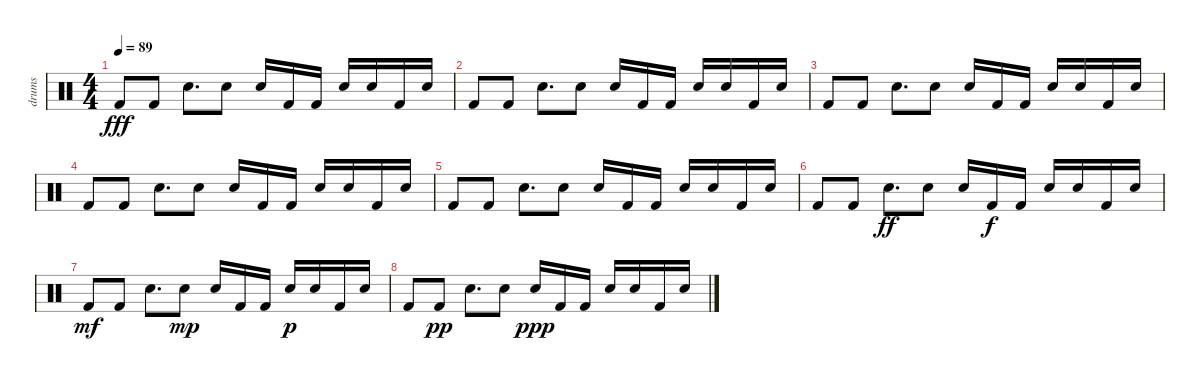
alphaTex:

\track ("drums" "drums") {instrument percussion}
\staff {score}
\articulation defaults
\ts (4 4)
\tempo 89
\clef neutral
\ks c "Kick (hit) 2".8{dy fff} "Kick (hit) 2".8 "Electric Snare (hit)".8{d} "Electric Snare (hit)".8 "Electric Snare (hit)".16 "Kick (hit) 2".16 "Kick (hit) 2".16 "Electric Snare (hit)".16 "Electric Snare (hit)".16 "Kick (hit) 2".16 "Electric Snare (hit)".16
|
"Kick (hit) 2".8 "Kick (hit) 2".8 "Electric Snare (hit)".8{d} "Electric Snare (hit)".8 "Electric Snare (hit)".16 "Kick (hit) 2".16 "Kick (hit) 2".16 "Electric Snare (hit)".16 "Electric Snare (hit)".16 "Kick (hit) 2".16 "Electric Snare (hit)".16 |
"Kick (hit) 2".8 "Kick (hit) 2".8 "Electric Snare (hit)".8{d} "Electric Snare (hit)".8 "Electric Snare (hit)".16 "Kick (hit) 2".16 "Kick (hit) 2".16 "Electric Snare (hit)".16 "Electric Snare (hit)".16 "Kick (hit) 2".16 "Electric Snare (hit)".16 |
"Kick (hit) 2".8 "Kick (hit) 2".8 "Electric Snare (hit)".8{d} "Electric Snare (hit)".8 "Electric Snare (hit)".16 "Kick (hit) 2".16 "Kick (hit) 2".16 "Electric Snare (hit)".16 "Electric Snare (hit)".16 "Kick (hit) 2".16 "Electric Snare (hit)".16 |
"Kick (hit) 2".8 "Kick (hit) 2".8 "Electric Snare (hit)".8{d} "Electric Snare (hit)".8 "Electric Snare (hit)".16 "Kick (hit) 2".16 "Kick (hit) 2".16 "Electric Snare (hit)".16 "Electric Snare (hit)".16 "Kick (hit) 2".16 "Electric Snare (hit)".16 |
"Kick (hit) 2".8 "Kick (hit) 2".8 "Electric Snare (hit)".8{d dy ff} "Electric Snare (hit)".8 "Electric Snare (hit)".16 "Kick (hit) 2".16{dy f} "Kick (hit) 2".16 "Electric Snare (hit)".16 "Electric Snare (hit)".16 "Kick (hit) 2".16 "Electric Snare (hit)".16 |
"Kick (hit) 2".8{dy mf} "Kick (hit) 2".8 "Electric Snare (hit)".8{d} "Electric Snare (hit)".8{dy mp} "Electric Snare (hit)".16 "Kick (hit) 2".16 "Kick (hit) 2".16 "Electric Snare (hit)".16{dy p} "Electric Snare (hit)".16 "Kick (hit) 2".16 "Electric Snare (hit)".16 |
"Kick (hit) 2".8 "Kick (hit) 2".8{dy pp} "Electric Snare (hit)".8{d} "Electric Snare (hit)".8 "Electric Snare (hit)".16{dy ppp} "Kick (hit) 2".16 "Kick (hit) 2".16 "Electric Snare (hit)".16 "Electric Snare (hit)".16 "Kick (hit) 2".16 "Electric Snare (hit)".16
